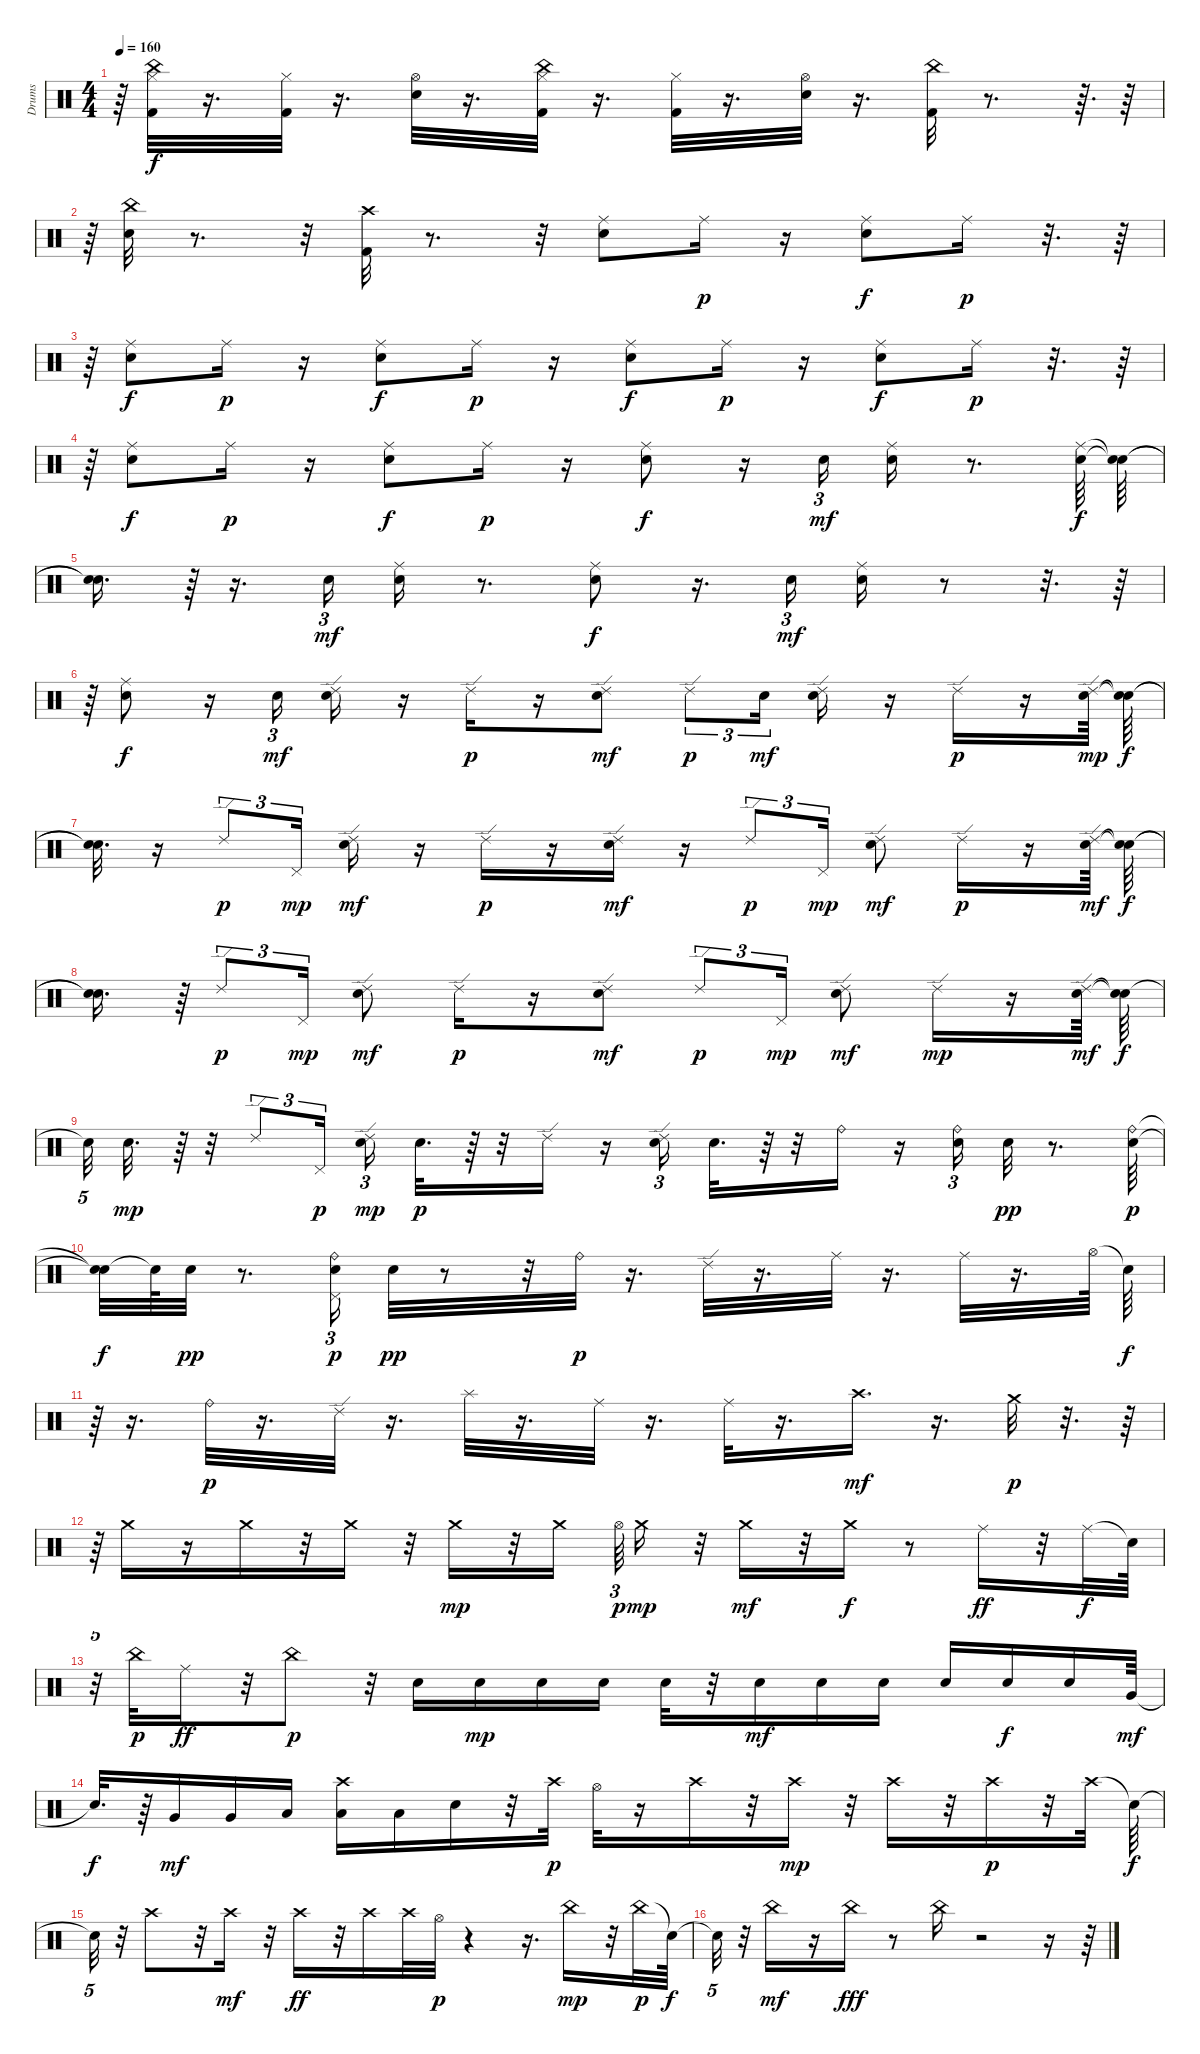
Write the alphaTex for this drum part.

\track ("Drums" "Drums") {instrument percussion}
\staff {score}
\articulation defaults
\ts (4 4)
\tempo 160
\clef neutral
\ks c
r.64{dy f} ("China (hit)" "Hi-Hat (closed)" "Kick (hit) 2").32 r.16{d} ("Hi-Hat (closed)" "Kick (hit) 2").32 r.16{d} ("Hi-Hat (open)" "Snare (hit) 2").32 r.16{d} ("China (hit)" "Hi-Hat (closed)" "Kick (hit) 2").32 r.16{d} ("Hi-Hat (closed)" "Kick (hit) 2").32 r.16{d} ("Hi-Hat (open)" "Snare (hit) 2").32 r.16{d} ("China (hit)" "Kick (hit) 2").32 r.8{d} r.64{d} r.64 |
r.64 ("China (hit)" "Snare (hit) 2").32 r.8{d} r.32 ("Crash high (hit)" "Kick (hit) 2").32 r.8{d} r.32 ("Ride (middle)" "Snare (hit) 2").8{volume 9} "Ride (middle)".16{dy p} r.16 ("Ride (middle)" "Snare (hit) 2").8{dy f} "Ride (middle)".16{dy p} r.32{d} r.64 |
r.64 ("Ride (middle)" "Snare (hit) 2").8{dy f} "Ride (middle)".16{dy p} r.16 ("Ride (middle)" "Snare (hit) 2").8{dy f} "Ride (middle)".16{dy p} r.16 ("Ride (middle)" "Snare (hit) 2").8{dy f} "Ride (middle)".16{dy p} r.16 ("Ride (middle)" "Snare (hit) 2").8{dy f} "Ride (middle)".16{dy p} r.32{d} r.64 |
r.64 ("Ride (middle)" "Snare (hit) 2").8{dy f} "Ride (middle)".16{dy p} r.16 ("Ride (middle)" "Snare (hit) 2").8{dy f} "Ride (middle)".16{dy p} r.16 ("Ride (middle)" "Snare (hit) 2").8{dy f} r.16 "Snare (hit) 2".16{tu (3 2) dy mf} ("Snare (hit) 2" "Ride (middle)").16 r.8{d} ("Snare (hit) 2" "Ride (middle)").64{dy f} ("Snare (hit)"{t} "Snare (hit)"{t}).64 |
("Snare (hit)"{t} "Snare (hit)"{t}).16{d} r.64 r.16{d} "Snare (hit) 2".16{tu (3 2) dy mf} ("Snare (hit) 2" "Ride (middle)").16 r.8{d} ("Snare (hit) 2" "Ride (middle)").8{dy f} r.16{d} "Snare (hit) 2".16{tu (3 2) dy mf} ("Ride (middle)" "Snare (hit) 2").16 r.8 r.32{d} r.64 |
r.64 ("Snare (hit) 2" "Ride (middle)").8{dy f} r.16 "Snare (hit) 2".16{tu (3 2) dy mf} ("Snare (hit) 2" "Ride (edge) 2").16 r.16 "Ride (edge) 2".16{dy p} r.16 ("Snare (hit) 2" "Ride (edge) 2").8{dy mf} "Ride (edge) 2".8{tu (3 2) dy p} "Snare (hit) 2".16{tu (3 2) dy mf} ("Snare (hit) 2" "Ride (edge) 2").16 r.16 "Ride (edge) 2".16{dy p} r.16 ("Ride (edge) 2" "Snare (hit) 2").64{dy mp} ("Snare (hit)"{t} "Snare (hit)"{t}).64{dy f} |
("Snare (hit)"{t} "Snare (hit)"{t}).32{d} r.16 "Ride (edge) 2".8{tu (3 2) dy p} "Pedal Hi-Hat (hit)".16{tu (3 2) dy mp} ("Snare (hit) 2" "Ride (edge) 2").16{dy mf} r.16 "Ride (edge) 2".16{dy p} r.16 ("Snare (hit) 2" "Ride (edge) 2").16{dy mf} r.16 "Ride (edge) 2".8{tu (3 2) dy p} "Pedal Hi-Hat (hit)".16{tu (3 2) dy mp} ("Ride (edge) 2" "Snare (hit) 2").8{dy mf} "Ride (edge) 2".16{dy p} r.16 ("Ride (edge) 2" "Snare (hit) 2").64{dy mf} ("Snare (hit)"{t} "Snare (hit)"{t}).64{dy f} |
("Snare (hit)"{t} "Snare (hit)"{t}).16{d} r.64 "Ride (edge) 2".8{tu (3 2) dy p} "Pedal Hi-Hat (hit)".16{tu (3 2) dy mp} ("Ride (edge) 2" "Snare (hit) 2").8{dy mf} "Ride (edge) 2".16{dy p} r.16 ("Ride (edge) 2" "Snare (hit) 2").8{dy mf} "Ride (edge) 2".8{tu (3 2) dy p} "Pedal Hi-Hat (hit)".16{tu (3 2) dy mp} ("Ride (edge) 2" "Snare (hit) 2").8{dy mf} "Ride (edge) 2".16{dy mp} r.16 ("Ride (edge) 2" "Snare (hit) 2").64{dy mf} ("Snare (hit)"{t} "Snare (hit)"{t}).64{dy f} |
"Snare (hit)"{t}.32{tu (5 4)} "Snare (hit) 2".32{d dy mp} r.64 r.32 "Ride (edge) 2".8{tu (3 2)} "Pedal Hi-Hat (hit)".16{tu (3 2) dy p} ("Ride (edge) 2" "Snare (hit) 2").16{tu (3 2) dy mp} "Snare (hit) 2".32{d dy p} r.64 r.32 "Ride (edge) 2".16 r.16 ("Snare (hit) 2" "Ride (edge) 2").16{tu (3 2)} "Snare (hit) 2".32{d} r.64 r.32 "Ride (bell)".16 r.16 ("Snare (hit) 2" "Ride (bell)").16{tu (3 2)} "Snare (hit) 2".32{dy pp} r.8{d} ("Snare (hit) 2" "Ride (bell)").64{dy p} |
("Snare (hit)"{t} "Snare (hit)"{t}).32{dy f} "Snare (hit)"{t}.64 "Snare (hit) 2".32{dy pp} r.8{d} ("Snare (hit) 2" "Pedal Hi-Hat (hit)" "Ride (bell)").16{tu (3 2) dy p} "Snare (hit) 2".32{dy pp} r.8 r.32 "Ride (bell)".32{dy p volume 7} r.16{d} "Ride (edge) 2".32 r.16{d} "Ride (middle)".32 r.16{d} "Ride (middle)".32 r.16{d} "Hi-Hat (open)".64 "Snare (hit)"{t}.64{dy f} |
r.64 r.16{d} "Ride (bell)".32{dy p} r.16{d} "Ride (edge) 2".32 r.16{d} "Splash (hit)".32 r.16{d} "Ride (middle)".32 r.16{d} "Ride (middle)".32 r.16{d} "Crash high (hit)".16{d dy mf} r.16{d} "Crash medium (hit)".32{dy p} r.32{d} r.64 |
r.64 "Crash medium (hit)".16 r.16 "Crash medium (hit)".16 r.32 "Crash medium (hit)".16 r.32 "Crash medium (hit)".16{dy mp} r.32 "Crash medium (hit)".16 "Hi-Hat (open)".64{tu (3 2) dy p} "Crash medium (hit)".16{dy mp} r.32 "Crash medium (hit)".16{dy mf} r.32 "Crash medium (hit)".16{dy f} r.8 "Ride (middle)".16{dy ff} r.32 "Ride (middle)".32{dy f} "Snare (hit)"{t}.64 |
r.32{tu (5 4)} "China (hit)".32{dy p} "Ride (middle)".16{dy ff} r.32 "China (hit)".8{dy p} r.32 "Snare (hit) 2".16 "Snare (hit) 2".16{dy mp} "Snare (hit) 2".16 "Snare (hit) 2".16 "Snare (hit) 2".32 r.32 "Snare (hit) 2".16{dy mf} "Snare (hit) 2".16 "Snare (hit) 2".16 "Snare (hit) 2".16 "Snare (hit) 2".16{dy f} "Snare (hit) 2".16 "Very Low Tom (hit)".64{dy mf} |
"Snare (hit)"{t}.32{d dy f} r.64 "Very Low Tom (hit)".16{dy mf} "Very Low Tom (hit)".16 "Low Floor Tom (hit)".16 ("Crash high (hit)" "Low Floor Tom (hit)").16 "Low Floor Tom (hit)".16 "Electric Snare (hit)".16 r.32 "Crash high (hit)".32{dy p} "Hi-Hat (open)".32 r.16 "Crash high (hit)".16 r.32 "Crash high (hit)".16{dy mp} r.32 "Crash high (hit)".16 r.32 "Crash high (hit)".16{dy p} r.32 "Crash high (hit)".32 "Snare (hit)"{t}.64{dy f} |
"Snare (hit)"{t}.32{tu (5 4)} r.32 "Crash high (hit)".8 r.32 "Crash high (hit)".16{dy mf} r.32 "Crash high (hit)".16{dy ff} r.32 "Crash high (hit)".16 "Crash high (hit)".32 "Hi-Hat (open)".32{dy p} r.4 r.16{d} "China (hit)".16{dy mp volume 7} r.32 "China (hit)".32{dy p} "Snare (hit)"{t}.64{dy f} |
"Snare (hit)"{t}.32{tu (5 4)} r.32 "China (hit)".16{dy mf volume 7} r.16 "China (hit)".16{dy fff volume 6} r.8 "China (hit)".16{volume 6} r.2 r.16 r.64
